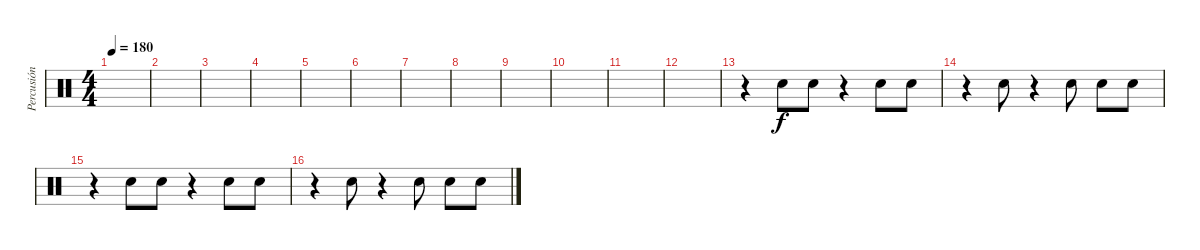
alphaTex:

\track ("Percusión" "Percusión") {instrument percussion}
\staff {score}
\articulation defaults
\ts (4 4)
\tempo 180
\clef neutral
\ks c
|
|
|
|
|
|
|
|
|
|
|
|
r.4 "Hand Clap (hit)".8 "Hand Clap (hit)".8 r.4 "Hand Clap (hit)".8 "Hand Clap (hit)".8 |
r.4 "Hand Clap (hit)".8 r.4 "Hand Clap (hit)".8 "Hand Clap (hit)".8 "Hand Clap (hit)".8 |
r.4 "Hand Clap (hit)".8 "Hand Clap (hit)".8 r.4 "Hand Clap (hit)".8 "Hand Clap (hit)".8 |
r.4 "Hand Clap (hit)".8 r.4 "Hand Clap (hit)".8 "Hand Clap (hit)".8 "Hand Clap (hit)".8
